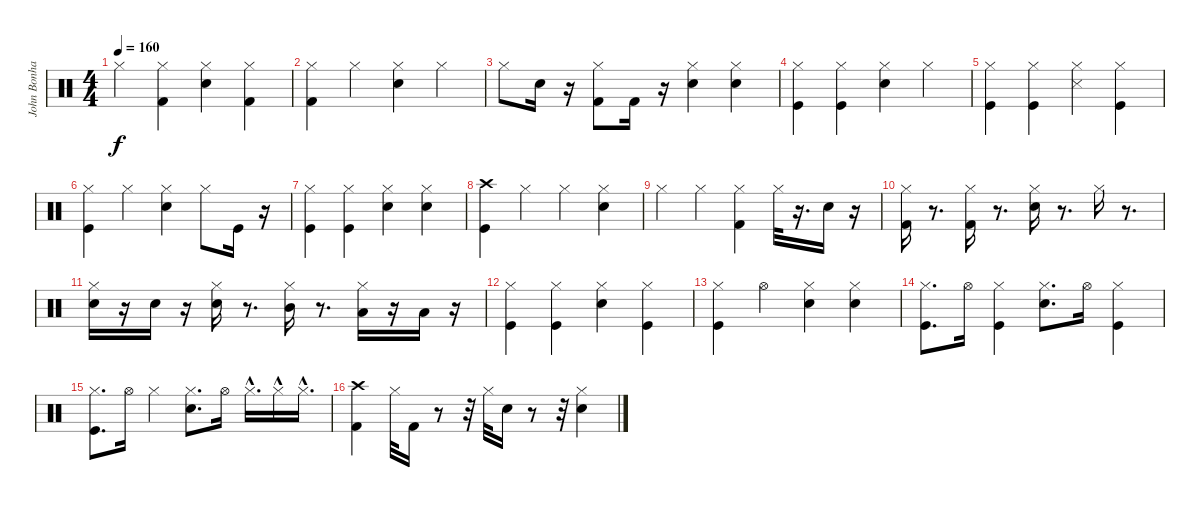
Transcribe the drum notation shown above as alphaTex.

\track ("John Bonham" "John Bonha") {instrument percussion}
\staff {score}
\articulation defaults
\ts (4 4)
\tempo 160
\clef neutral
\ks c "Hi-Hat (closed)".4{dy f}
("Hi-Hat (closed)" "Kick (hit) 2").4 ("Hi-Hat (closed)" "Snare (hit) 2").4 ("Hi-Hat (closed)" "Kick (hit) 2").4 |
("Kick (hit) 2" "Hi-Hat (closed)").4 "Hi-Hat (closed)".4 ("Snare (hit) 2" "Hi-Hat (closed)").4 "Hi-Hat (closed)".4 |
"Hi-Hat (closed)".8 "Snare (hit) 2".16 r.16 ("Kick (hit) 2" "Hi-Hat (closed)").8 "Kick (hit) 2".16 r.16 ("Snare (hit) 2" "Hi-Hat (closed)").4 ("Snare (hit) 2" "Hi-Hat (closed)").4 |
("Kick (hit)" "Hi-Hat (closed)").4 ("Kick (hit)" "Hi-Hat (closed)").4 ("Snare (hit) 2" "Hi-Hat (closed)").4 "Hi-Hat (closed)".4 |
("Kick (hit)" "Hi-Hat (closed)").4 ("Kick (hit)" "Hi-Hat (closed)").4 ("Snare (side stick) 3" "Hi-Hat (closed)").4 ("Kick (hit)" "Hi-Hat (closed)").4 |
("Kick (hit)" "Hi-Hat (closed)").4 "Hi-Hat (closed)".4 ("Snare (hit) 2" "Hi-Hat (closed)").4 "Hi-Hat (closed)".8 "Kick (hit)".16 r.16 |
("Kick (hit)" "Hi-Hat (closed)").4 ("Kick (hit)" "Hi-Hat (closed)").4 ("Snare (hit) 2" "Hi-Hat (closed)").4 ("Snare (hit) 2" "Hi-Hat (closed)").4 |
("Kick (hit)" "Crash high (hit)").4 "Hi-Hat (closed)".4 "Hi-Hat (closed)".4 ("Snare (hit) 2" "Hi-Hat (closed)").4 |
"Hi-Hat (closed)".4 "Hi-Hat (closed)".4 ("Hi-Hat (closed)" "Kick (hit) 2").4 "Hi-Hat (closed)".32 r.16{d} "Snare (hit) 2".16 r.16 |
("Kick (hit) 2" "Hi-Hat (closed)").16 r.8{d} ("Kick (hit) 2" "Hi-Hat (closed)").16 r.8{d} ("Snare (hit) 2" "Hi-Hat (closed)").16 r.8{d} "Hi-Hat (closed)".16 r.8{d} |
("Hi-Hat (closed)" "Snare (hit) 2").16 r.16 "Snare (hit) 2".16 r.16 ("Hi-Hat (closed)" "Snare (hit) 2").16 r.8{d} ("Hi-Hat (closed)" "Mid Tom (hit)").16 r.8{d} ("Hi-Hat (closed)" "Low Tom (hit)").16 r.16 "Low Tom (hit)".16 r.16 |
("Kick (hit)" "Hi-Hat (closed)").4 ("Kick (hit)" "Hi-Hat (closed)").4 ("Snare (hit) 2" "Hi-Hat (closed)").4 ("Kick (hit)" "Hi-Hat (closed)").4 |
("Kick (hit)" "Hi-Hat (closed)").4 "Hi-Hat (open)".4 ("Snare (hit) 2" "Hi-Hat (closed)").4 ("Snare (hit) 2" "Hi-Hat (closed)").4 |
("Kick (hit)" "Hi-Hat (closed)").8{d} "Hi-Hat (open)".16 ("Kick (hit)" "Hi-Hat (closed)").4 ("Snare (hit) 2" "Hi-Hat (closed)").8{d} "Hi-Hat (open)".16 ("Kick (hit)" "Hi-Hat (closed)").4 |
("Kick (hit)" "Hi-Hat (closed)").8{d} "Hi-Hat (open)".16 "Hi-Hat (closed)".4 ("Snare (hit) 2" "Hi-Hat (closed)").8{d} "Hi-Hat (open)".16 "Hi-Hat (closed)"{hac}.16{d} "Hi-Hat (closed)"{hac}.16 "Hi-Hat (closed)"{hac}.16{d} |
("Kick (hit) 2" "Crash high (hit)").4 "Hi-Hat (closed)".32 "Kick (hit) 2".16 r.8 r.32 "Hi-Hat (closed)".32 "Snare (hit) 2".16 r.8 r.32 ("Hi-Hat (closed)" "Snare (hit) 2").4
